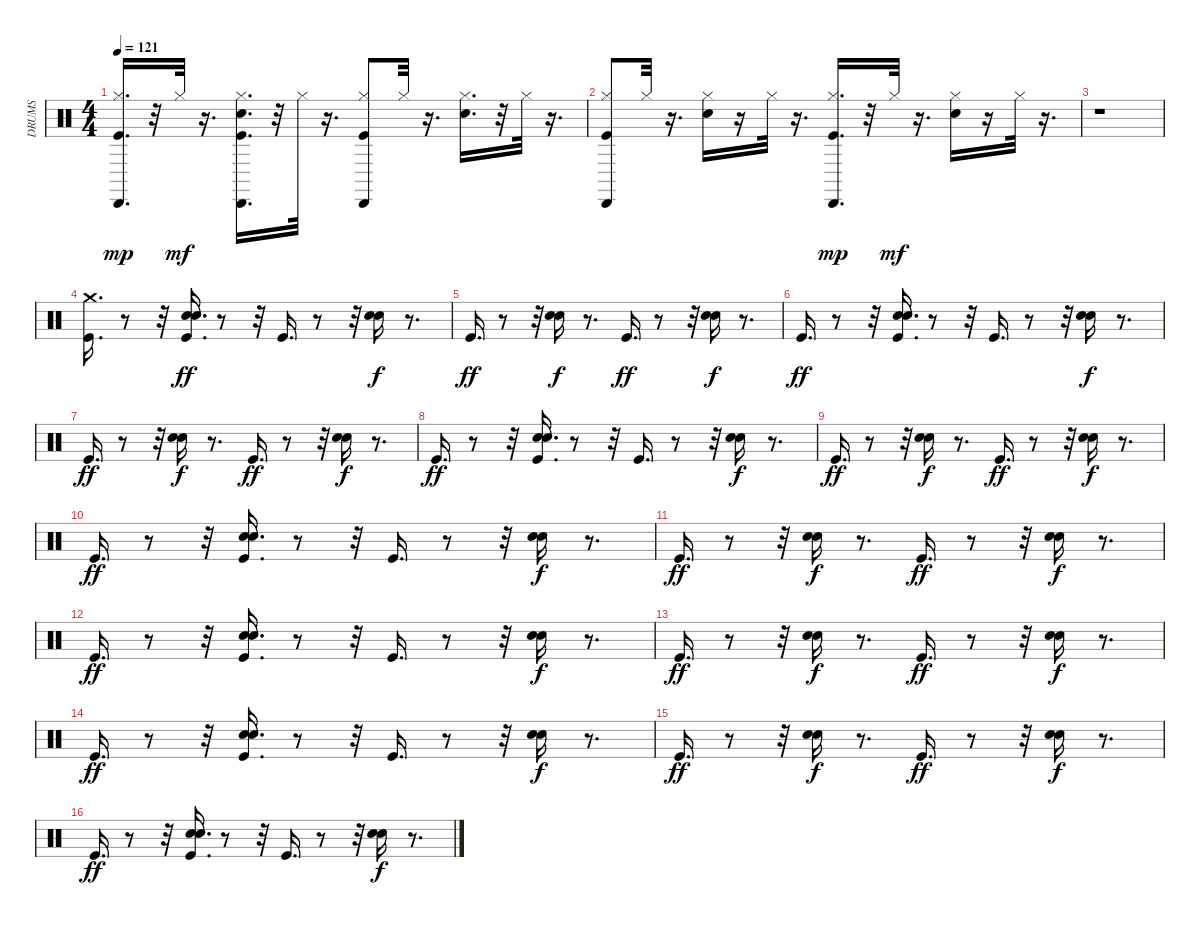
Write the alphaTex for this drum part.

\track ("DRUMS" "DRUMS") {instrument percussion}
\staff {score}
\articulation defaults
\ts (4 4)
\tempo 121
\clef neutral
\ks c
("Kick (hit)" "Hi-Hat (closed)" "Cabasa (hit)").16{d dy mp} r.32 "Hi-Hat (closed)".32{dy mf} r.16{d} ("Kick (hit)" "Electric Snare (hit)" "Cabasa (hit)" "Hi-Hat (closed)").16{d} r.32 "Hi-Hat (closed)".32 r.16{d} ("Kick (hit)" "Cabasa (hit)" "Hi-Hat (closed)").8 "Hi-Hat (closed)".32 r.16{d} ("Hi-Hat (closed)" "Electric Snare (hit)").16{d} r.32 "Hi-Hat (closed)".32 r.16{d} |
("Kick (hit)" "Cabasa (hit)" "Hi-Hat (closed)").8 "Hi-Hat (closed)".32 r.16{d} ("Electric Snare (hit)" "Hi-Hat (closed)").16 r.16 "Hi-Hat (closed)".32 r.16{d} ("Hi-Hat (closed)" "Kick (hit)" "Cabasa (hit)").16{d dy mp} r.32 "Hi-Hat (closed)".32{dy mf} r.16{d} ("Electric Snare (hit)" "Hi-Hat (closed)").16 r.16 "Hi-Hat (closed)".32 r.16{d} |
r.1 |
("Kick (hit)" "Crash medium (hit)").16{d} r.8 r.32 ("Electric Snare (hit)" "Kick (hit)" "Hand Clap (hit)").16{d dy ff} r.8 r.32 "Kick (hit)".16{d} r.8 r.32 ("Hand Clap (hit)" "Electric Snare (hit)").16{dy f} r.8{d} |
"Kick (hit)".16{d dy ff} r.8 r.32 ("Electric Snare (hit)" "Hand Clap (hit)").16{dy f} r.8{d} "Kick (hit)".16{d dy ff} r.8 r.32 ("Hand Clap (hit)" "Electric Snare (hit)").16{dy f} r.8{d} |
"Kick (hit)".16{d dy ff} r.8 r.32 ("Electric Snare (hit)" "Kick (hit)" "Hand Clap (hit)").16{d} r.8 r.32 "Kick (hit)".16{d} r.8 r.32 ("Electric Snare (hit)" "Hand Clap (hit)").16{dy f} r.8{d} |
"Kick (hit)".16{d dy ff} r.8 r.32 ("Hand Clap (hit)" "Electric Snare (hit)").16{dy f} r.8{d} "Kick (hit)".16{d dy ff} r.8 r.32 ("Electric Snare (hit)" "Hand Clap (hit)").16{dy f} r.8{d} |
"Kick (hit)".16{d dy ff} r.8 r.32 ("Hand Clap (hit)" "Kick (hit)" "Electric Snare (hit)").16{d} r.8 r.32 "Kick (hit)".16{d} r.8 r.32 ("Electric Snare (hit)" "Hand Clap (hit)").16{dy f} r.8{d} |
"Kick (hit)".16{d dy ff} r.8 r.32 ("Electric Snare (hit)" "Hand Clap (hit)").16{dy f} r.8{d} "Kick (hit)".16{d dy ff} r.8 r.32 ("Hand Clap (hit)" "Electric Snare (hit)").16{dy f} r.8{d} |
"Kick (hit)".16{d dy ff} r.8 r.32 ("Electric Snare (hit)" "Hand Clap (hit)" "Kick (hit)").16{d} r.8 r.32 "Kick (hit)".16{d} r.8 r.32 ("Electric Snare (hit)" "Hand Clap (hit)").16{dy f} r.8{d} |
"Kick (hit)".16{d dy ff} r.8 r.32 ("Electric Snare (hit)" "Hand Clap (hit)").16{dy f} r.8{d} "Kick (hit)".16{d dy ff} r.8 r.32 ("Electric Snare (hit)" "Hand Clap (hit)").16{dy f} r.8{d} |
"Kick (hit)".16{d dy ff} r.8 r.32 ("Kick (hit)" "Electric Snare (hit)" "Hand Clap (hit)").16{d} r.8 r.32 "Kick (hit)".16{d} r.8 r.32 ("Hand Clap (hit)" "Electric Snare (hit)").16{dy f} r.8{d} |
"Kick (hit)".16{d dy ff} r.8 r.32 ("Hand Clap (hit)" "Electric Snare (hit)").16{dy f} r.8{d} "Kick (hit)".16{d dy ff} r.8 r.32 ("Hand Clap (hit)" "Electric Snare (hit)").16{dy f} r.8{d} |
"Kick (hit)".16{d dy ff} r.8 r.32 ("Hand Clap (hit)" "Electric Snare (hit)" "Kick (hit)").16{d} r.8 r.32 "Kick (hit)".16{d} r.8 r.32 ("Hand Clap (hit)" "Electric Snare (hit)").16{dy f} r.8{d} |
"Kick (hit)".16{d dy ff} r.8 r.32 ("Electric Snare (hit)" "Hand Clap (hit)").16{dy f} r.8{d} "Kick (hit)".16{d dy ff} r.8 r.32 ("Electric Snare (hit)" "Hand Clap (hit)").16{dy f} r.8{d} |
"Kick (hit)".16{d dy ff} r.8 r.32 ("Kick (hit)" "Hand Clap (hit)" "Electric Snare (hit)").16{d} r.8 r.32 "Kick (hit)".16{d} r.8 r.32 ("Electric Snare (hit)" "Hand Clap (hit)").16{dy f} r.8{d}
